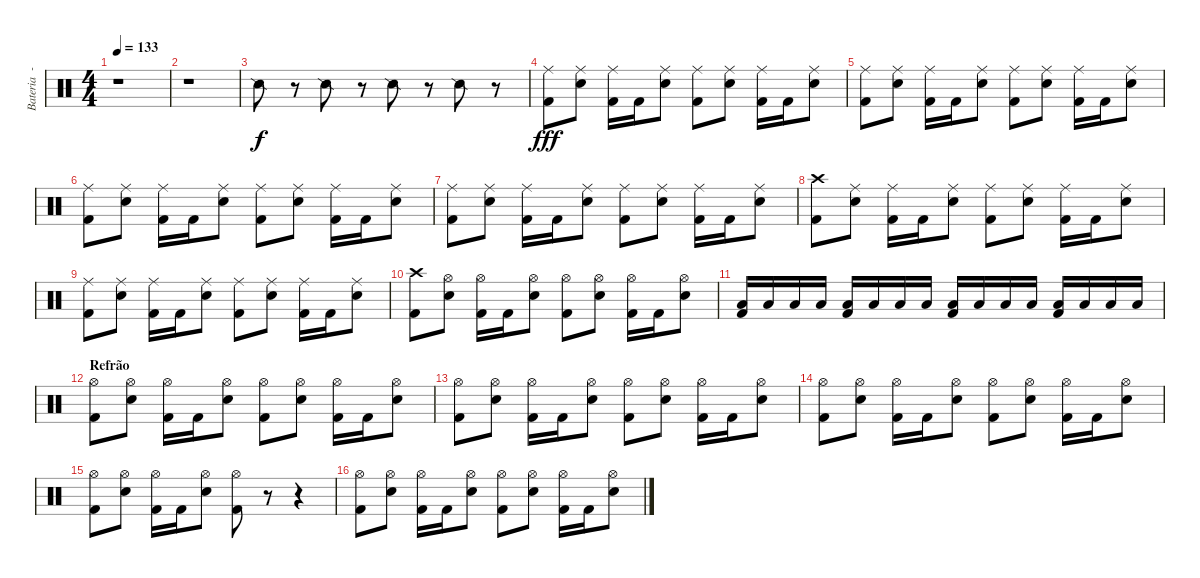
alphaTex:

\track ("Bateria  - Larzon" "Bateria  -") {instrument percussion}
\staff {score}
\articulation defaults
\ts (4 4)
\tempo 133
\clef neutral
\ks c
r.1{dy f} |
r.1 |
"Snare (side stick) 2".8 r.8 "Snare (side stick) 2".8 r.8 "Snare (side stick) 2".8 r.8 "Snare (side stick) 2".8 r.8 |
("Kick (hit) 2" "Ride (middle)").8{dy fff} ("Electric Snare (hit)" "Ride (middle)").8 ("Kick (hit) 2" "Ride (middle)").16 "Kick (hit) 2".16 ("Electric Snare (hit)" "Ride (middle)").8 ("Kick (hit) 2" "Ride (middle)").8 ("Electric Snare (hit)" "Ride (middle)").8 ("Kick (hit) 2" "Ride (middle)").16 "Kick (hit) 2".16 ("Electric Snare (hit)" "Ride (middle)").8 |
("Kick (hit) 2" "Ride (middle)").8 ("Electric Snare (hit)" "Ride (middle)").8 ("Kick (hit) 2" "Ride (middle)").16 "Kick (hit) 2".16 ("Electric Snare (hit)" "Ride (middle)").8 ("Kick (hit) 2" "Ride (middle)").8 ("Electric Snare (hit)" "Ride (middle)").8 ("Kick (hit) 2" "Ride (middle)").16 "Kick (hit) 2".16 ("Electric Snare (hit)" "Ride (middle)").8 |
("Kick (hit) 2" "Ride (middle)").8 ("Electric Snare (hit)" "Ride (middle)").8 ("Kick (hit) 2" "Ride (middle)").16 "Kick (hit) 2".16 ("Electric Snare (hit)" "Ride (middle)").8 ("Kick (hit) 2" "Ride (middle)").8 ("Electric Snare (hit)" "Ride (middle)").8 ("Kick (hit) 2" "Ride (middle)").16 "Kick (hit) 2".16 ("Electric Snare (hit)" "Ride (middle)").8 |
("Kick (hit) 2" "Ride (middle)").8 ("Electric Snare (hit)" "Ride (middle)").8 ("Kick (hit) 2" "Ride (middle)").16 "Kick (hit) 2".16 ("Electric Snare (hit)" "Ride (middle)").8 ("Kick (hit) 2" "Ride (middle)").8 ("Electric Snare (hit)" "Ride (middle)").8 ("Kick (hit) 2" "Ride (middle)").16 "Kick (hit) 2".16 ("Electric Snare (hit)" "Ride (middle)").8 |
("Kick (hit) 2" "Crash high (hit)").8 ("Electric Snare (hit)" "Ride (middle)").8 ("Ride (middle)" "Kick (hit) 2").16 "Kick (hit) 2".16 ("Electric Snare (hit)" "Ride (middle)").8 ("Kick (hit) 2" "Ride (middle)").8 ("Electric Snare (hit)" "Ride (middle)").8 ("Kick (hit) 2" "Ride (middle)").16 "Kick (hit) 2".16 ("Electric Snare (hit)" "Ride (middle)").8 |
("Kick (hit) 2" "Ride (middle)").8 ("Electric Snare (hit)" "Ride (middle)").8 ("Kick (hit) 2" "Ride (middle)").16 "Kick (hit) 2".16 ("Electric Snare (hit)" "Ride (middle)").8 ("Kick (hit) 2" "Ride (middle)").8 ("Electric Snare (hit)" "Ride (middle)").8 ("Kick (hit) 2" "Ride (middle)").16 "Kick (hit) 2".16 ("Electric Snare (hit)" "Ride (middle)").8 |
("Kick (hit) 2" "Crash high (hit)").8 ("Electric Snare (hit)" "Hi-Hat (open)").8 ("Kick (hit) 2" "Hi-Hat (open)").16 "Kick (hit) 2".16 ("Electric Snare (hit)" "Hi-Hat (open)").8 ("Kick (hit) 2" "Hi-Hat (open)").8 ("Electric Snare (hit)" "Hi-Hat (open)").8 ("Kick (hit) 2" "Hi-Hat (open)").16 "Kick (hit) 2".16 ("Electric Snare (hit)" "Hi-Hat (open)").8 |
("Kick (hit) 2" "Low Tom (hit)").16 "Low Tom (hit)".16 "Low Tom (hit)".16 "Low Tom (hit)".16 ("Kick (hit) 2" "Low Tom (hit)").16 "Low Tom (hit)".16 "Low Tom (hit)".16 "Low Tom (hit)".16 ("Kick (hit) 2" "Low Tom (hit)").16 "Low Tom (hit)".16 "Low Tom (hit)".16 "Low Tom (hit)".16 ("Kick (hit) 2" "Low Tom (hit)").16 "Low Tom (hit)".16 "Low Tom (hit)".16 "Low Tom (hit)".16 |
\section ("" "Refrão")
("Kick (hit) 2" "Hi-Hat (open)").8 ("Electric Snare (hit)" "Hi-Hat (open)").8 ("Kick (hit) 2" "Hi-Hat (open)").16 "Kick (hit) 2".16 ("Electric Snare (hit)" "Hi-Hat (open)").8 ("Kick (hit) 2" "Hi-Hat (open)").8 ("Electric Snare (hit)" "Hi-Hat (open)").8 ("Kick (hit) 2" "Hi-Hat (open)").16 "Kick (hit) 2".16 ("Electric Snare (hit)" "Hi-Hat (open)").8 |
("Kick (hit) 2" "Hi-Hat (open)").8 ("Electric Snare (hit)" "Hi-Hat (open)").8 ("Kick (hit) 2" "Hi-Hat (open)").16 "Kick (hit) 2".16 ("Electric Snare (hit)" "Hi-Hat (open)").8 ("Kick (hit) 2" "Hi-Hat (open)").8 ("Electric Snare (hit)" "Hi-Hat (open)").8 ("Kick (hit) 2" "Hi-Hat (open)").16 "Kick (hit) 2".16 ("Electric Snare (hit)" "Hi-Hat (open)").8 |
("Kick (hit) 2" "Hi-Hat (open)").8 ("Electric Snare (hit)" "Hi-Hat (open)").8 ("Kick (hit) 2" "Hi-Hat (open)").16 "Kick (hit) 2".16 ("Electric Snare (hit)" "Hi-Hat (open)").8 ("Kick (hit) 2" "Hi-Hat (open)").8 ("Electric Snare (hit)" "Hi-Hat (open)").8 ("Kick (hit) 2" "Hi-Hat (open)").16 "Kick (hit) 2".16 ("Electric Snare (hit)" "Hi-Hat (open)").8 |
("Kick (hit) 2" "Hi-Hat (open)").8 ("Electric Snare (hit)" "Hi-Hat (open)").8 ("Kick (hit) 2" "Hi-Hat (open)").16 "Kick (hit) 2".16 ("Electric Snare (hit)" "Hi-Hat (open)").8 ("Kick (hit) 2" "Hi-Hat (open)").8 r.8 r.4 |
("Kick (hit) 2" "Hi-Hat (open)").8 ("Electric Snare (hit)" "Hi-Hat (open)").8 ("Kick (hit) 2" "Hi-Hat (open)").16 "Kick (hit) 2".16 ("Electric Snare (hit)" "Hi-Hat (open)").8 ("Kick (hit) 2" "Hi-Hat (open)").8 ("Electric Snare (hit)" "Hi-Hat (open)").8 ("Kick (hit) 2" "Hi-Hat (open)").16 "Kick (hit) 2".16 ("Electric Snare (hit)" "Hi-Hat (open)").8
